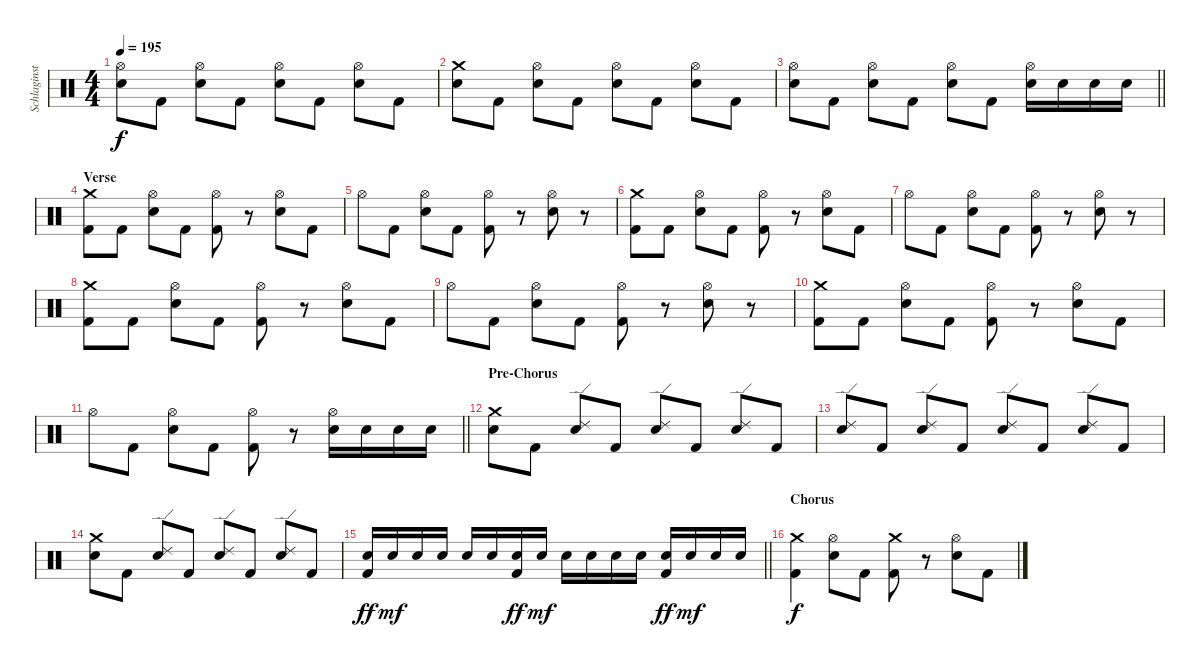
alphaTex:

\track ("Schlaginstrumente - Auswahl" "Schlaginst") {instrument percussion}
\staff {score}
\articulation defaults
\ts (4 4)
\tempo 195
\clef neutral
\ks c
("Hi-Hat (open)" "Snare (hit) 2").8{dy f} "Kick (hit) 2".8 ("Hi-Hat (open)" "Snare (hit) 2").8 "Kick (hit) 2".8 ("Hi-Hat (open)" "Snare (hit) 2").8 "Kick (hit) 2".8 ("Hi-Hat (open)" "Snare (hit) 2").8 "Kick (hit) 2".8 |
("Crash medium (hit)" "Snare (hit) 2").8 "Kick (hit) 2".8 ("Hi-Hat (open)" "Snare (hit) 2").8 "Kick (hit) 2".8 ("Hi-Hat (open)" "Snare (hit) 2").8 "Kick (hit) 2".8 ("Hi-Hat (open)" "Snare (hit) 2").8 "Kick (hit) 2".8 |
\barLineRight lightlight
("Hi-Hat (open)" "Snare (hit) 2").8 "Kick (hit) 2".8 ("Hi-Hat (open)" "Snare (hit) 2").8 "Kick (hit) 2".8 ("Hi-Hat (open)" "Snare (hit) 2").8 "Kick (hit) 2".8 ("Hi-Hat (open)" "Snare (hit) 2").16 "Snare (hit) 2".16 "Snare (hit) 2".16 "Snare (hit) 2".16 |
\section ("" "Verse")
("Crash medium (hit)" "Kick (hit) 2").8 "Kick (hit) 2".8 ("Hi-Hat (open)" "Snare (hit) 2").8 "Kick (hit) 2".8 ("Hi-Hat (open)" "Kick (hit) 2").8 r.8 ("Hi-Hat (open)" "Snare (hit) 2").8 "Kick (hit) 2".8 |
"Hi-Hat (open)".8 "Kick (hit) 2".8 ("Hi-Hat (open)" "Snare (hit) 2").8 "Kick (hit) 2".8 ("Hi-Hat (open)" "Kick (hit) 2").8 r.8 ("Hi-Hat (open)" "Snare (hit) 2").8 r.8 |
("Crash medium (hit)" "Kick (hit) 2").8 "Kick (hit) 2".8 ("Hi-Hat (open)" "Snare (hit) 2").8 "Kick (hit) 2".8 ("Hi-Hat (open)" "Kick (hit) 2").8 r.8 ("Hi-Hat (open)" "Snare (hit) 2").8 "Kick (hit) 2".8 |
"Hi-Hat (open)".8 "Kick (hit) 2".8 ("Hi-Hat (open)" "Snare (hit) 2").8 "Kick (hit) 2".8 ("Hi-Hat (open)" "Kick (hit) 2").8 r.8 ("Hi-Hat (open)" "Snare (hit) 2").8 r.8 |
("Crash medium (hit)" "Kick (hit) 2").8 "Kick (hit) 2".8 ("Hi-Hat (open)" "Snare (hit) 2").8 "Kick (hit) 2".8 ("Hi-Hat (open)" "Kick (hit) 2").8 r.8 ("Hi-Hat (open)" "Snare (hit) 2").8 "Kick (hit) 2".8 |
"Hi-Hat (open)".8 "Kick (hit) 2".8 ("Hi-Hat (open)" "Snare (hit) 2").8 "Kick (hit) 2".8 ("Hi-Hat (open)" "Kick (hit) 2").8 r.8 ("Hi-Hat (open)" "Snare (hit) 2").8 r.8 |
("Crash medium (hit)" "Kick (hit) 2").8 "Kick (hit) 2".8 ("Hi-Hat (open)" "Snare (hit) 2").8 "Kick (hit) 2".8 ("Hi-Hat (open)" "Kick (hit) 2").8 r.8 ("Hi-Hat (open)" "Snare (hit) 2").8 "Kick (hit) 2".8 |
\barLineRight lightlight "Hi-Hat (open)".8 "Kick (hit) 2".8
("Hi-Hat (open)" "Snare (hit) 2").8 "Kick (hit) 2".8 ("Hi-Hat (open)" "Kick (hit) 2").8 r.8 ("Hi-Hat (open)" "Snare (hit) 2").16 "Snare (hit) 2".16 "Snare (hit) 2".16 "Snare (hit) 2".16 |
\section ("" "Pre-Chorus")
("Crash medium (hit)" "Snare (hit) 2").8 "Kick (hit) 2".8 ("Ride (edge) 2" "Snare (hit) 2").8 "Kick (hit) 2".8 ("Ride (edge) 2" "Snare (hit) 2").8 "Kick (hit) 2".8 ("Ride (edge) 2" "Snare (hit) 2").8 "Kick (hit) 2".8 |
("Ride (edge) 2" "Snare (hit) 2").8 "Kick (hit) 2".8 ("Ride (edge) 2" "Snare (hit) 2").8 "Kick (hit) 2".8 ("Ride (edge) 2" "Snare (hit) 2").8 "Kick (hit) 2".8 ("Ride (edge) 2" "Snare (hit) 2").8 "Kick (hit) 2".8 |
("Crash medium (hit)" "Snare (hit) 2").8 "Kick (hit) 2".8 ("Ride (edge) 2" "Snare (hit) 2").8 "Kick (hit) 2".8 ("Ride (edge) 2" "Snare (hit) 2").8 "Kick (hit) 2".8 ("Ride (edge) 2" "Snare (hit) 2").8 "Kick (hit) 2".8 |
\barLineRight lightlight
("Snare (hit) 2" "Kick (hit) 2").16{dy ff} "Snare (hit) 2".16{dy mf} "Snare (hit) 2".16 "Snare (hit) 2".16 "Snare (hit) 2".16 "Snare (hit) 2".16 ("Snare (hit) 2" "Kick (hit) 2").16{dy ff} "Snare (hit) 2".16{dy mf} "Snare (hit) 2".16 "Snare (hit) 2".16 "Snare (hit) 2".16 "Snare (hit) 2".16 ("Snare (hit) 2" "Kick (hit) 2").16{dy ff} "Snare (hit) 2".16{dy mf} "Snare (hit) 2".16 "Snare (hit) 2".16 |
\section ("" "Chorus")
("Crash medium (hit)" "Kick (hit) 2").4{dy f} ("Hi-Hat (open)" "Snare (hit) 2").8 "Kick (hit) 2".8 ("Crash medium (hit)" "Kick (hit) 2").8 r.8 ("Hi-Hat (open)" "Snare (hit) 2").8 "Kick (hit) 2".8
